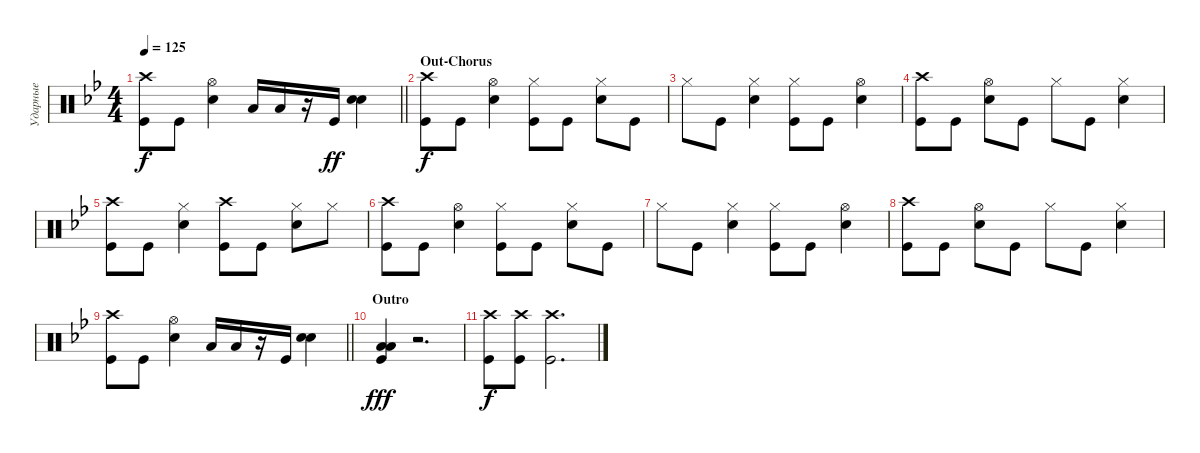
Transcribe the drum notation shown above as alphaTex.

\track ("Ударные" "Ударные") {instrument percussion}
\staff {score}
\articulation defaults
\ts (4 4)
\tempo 125
\clef neutral
\barLineRight lightlight
\ks gminor
("Kick (hit)" "Crash high (hit)").8{dy f} "Kick (hit)".8 ("Snare (hit) 2" "Hi-Hat (open)").4 "Low Tom (hit)".16 "Low Tom (hit)".16 r.16 "Kick (hit)".16{dy ff} ("Snare (hit) 2" "Snare (hit) 2").4{bd 240} |
\section ("" "Out-Chorus")
("Kick (hit)" "Crash high (hit)").8{dy f} "Kick (hit)".8 ("Snare (hit) 2" "Hi-Hat (open)").4 ("Kick (hit)" "Hi-Hat (closed)").8 "Kick (hit)".8 ("Snare (hit) 2" "Hi-Hat (closed)").8 "Kick (hit)".8 |
"Hi-Hat (closed)".8 "Kick (hit)".8 ("Snare (hit) 2" "Hi-Hat (closed)").4 ("Kick (hit)" "Hi-Hat (closed)").8 "Kick (hit)".8 ("Snare (hit) 2" "Hi-Hat (open)").4 |
("Kick (hit)" "Crash high (hit)").8 "Kick (hit)".8 ("Snare (hit) 2" "Hi-Hat (open)").8 "Kick (hit)".8 "Hi-Hat (closed)".8 "Kick (hit)".8 ("Snare (hit) 2" "Hi-Hat (closed)").4 |
("Kick (hit)" "Crash high (hit)").8 "Kick (hit)".8 ("Snare (hit) 2" "Hi-Hat (closed)").4 ("Kick (hit)" "Crash high (hit)").8 "Kick (hit)".8 ("Snare (hit) 2" "Hi-Hat (closed)").8 "Hi-Hat (closed)".8 |
("Kick (hit)" "Crash high (hit)").8 "Kick (hit)".8 ("Snare (hit) 2" "Hi-Hat (open)").4 ("Kick (hit)" "Hi-Hat (closed)").8 "Kick (hit)".8 ("Snare (hit) 2" "Hi-Hat (closed)").8 "Kick (hit)".8 |
"Hi-Hat (closed)".8 "Kick (hit)".8 ("Snare (hit) 2" "Hi-Hat (closed)").4 ("Kick (hit)" "Hi-Hat (closed)").8 "Kick (hit)".8 ("Snare (hit) 2" "Hi-Hat (open)").4 |
("Kick (hit)" "Crash high (hit)").8 "Kick (hit)".8 ("Snare (hit) 2" "Hi-Hat (open)").8 "Kick (hit)".8 "Hi-Hat (closed)".8 "Kick (hit)".8 ("Snare (hit) 2" "Hi-Hat (closed)").4 |
\barLineRight lightlight
("Kick (hit)" "Crash high (hit)").8 "Kick (hit)".8 ("Snare (hit) 2" "Hi-Hat (open)").4 "Low Tom (hit)".16 "Low Tom (hit)".16 r.16 "Kick (hit)".16 ("Snare (hit) 2" "Snare (hit) 2").4{bd 240} |
\section ("" "Outro")
("Low Floor Tom (hit)" "Low Floor Tom (hit)" "Kick (hit)").4{bd 240 dy fff} r.2{d} |
("Kick (hit)" "Crash high (hit)").8{dy f} ("Kick (hit)" "Crash high (hit)").8 ("Kick (hit)" "Crash high (hit)").2{d}
